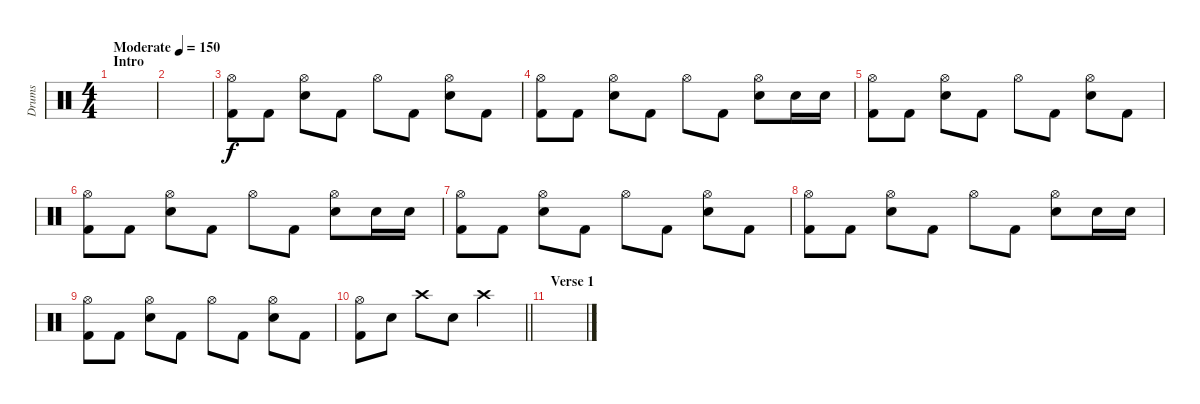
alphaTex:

\track ("Drums" "Drums") {instrument percussion}
\staff {score}
\articulation defaults
\ts (4 4)
\section ("" "Intro")
\tempo (150 "Moderate")
\clef neutral
\ks c
|
|
("Hi-Hat (open)" "Kick (hit) 2").8 "Kick (hit) 2".8 ("Hi-Hat (open)" "Snare (hit) 2").8 "Kick (hit) 2".8 "Hi-Hat (open)".8 "Kick (hit) 2".8 ("Hi-Hat (open)" "Snare (hit) 2").8 "Kick (hit) 2".8 |
("Hi-Hat (open)" "Kick (hit) 2").8 "Kick (hit) 2".8 ("Hi-Hat (open)" "Snare (hit) 2").8 "Kick (hit) 2".8 "Hi-Hat (open)".8 "Kick (hit) 2".8 ("Hi-Hat (open)" "Snare (hit) 2").8 "Snare (hit) 2".16 "Snare (hit) 2".16 |
("Hi-Hat (open)" "Kick (hit) 2").8 "Kick (hit) 2".8 ("Hi-Hat (open)" "Snare (hit) 2").8 "Kick (hit) 2".8 "Hi-Hat (open)".8 "Kick (hit) 2".8 ("Hi-Hat (open)" "Snare (hit) 2").8 "Kick (hit) 2".8 |
("Hi-Hat (open)" "Kick (hit) 2").8 "Kick (hit) 2".8 ("Hi-Hat (open)" "Snare (hit) 2").8 "Kick (hit) 2".8 "Hi-Hat (open)".8 "Kick (hit) 2".8 ("Hi-Hat (open)" "Snare (hit) 2").8 "Snare (hit) 2".16 "Snare (hit) 2".16 |
("Hi-Hat (open)" "Kick (hit) 2").8 "Kick (hit) 2".8 ("Hi-Hat (open)" "Snare (hit) 2").8 "Kick (hit) 2".8 "Hi-Hat (open)".8 "Kick (hit) 2".8 ("Hi-Hat (open)" "Snare (hit) 2").8 "Kick (hit) 2".8 |
("Hi-Hat (open)" "Kick (hit) 2").8 "Kick (hit) 2".8 ("Hi-Hat (open)" "Snare (hit) 2").8 "Kick (hit) 2".8 "Hi-Hat (open)".8 "Kick (hit) 2".8 ("Hi-Hat (open)" "Snare (hit) 2").8 "Snare (hit) 2".16 "Snare (hit) 2".16 |
("Hi-Hat (open)" "Kick (hit) 2").8 "Kick (hit) 2".8 ("Hi-Hat (open)" "Snare (hit) 2").8 "Kick (hit) 2".8 "Hi-Hat (open)".8 "Kick (hit) 2".8 ("Hi-Hat (open)" "Snare (hit) 2").8 "Kick (hit) 2".8 |
\barLineRight lightlight
("Hi-Hat (open)" "Kick (hit) 2").8 "Snare (hit) 2".8 "Crash high (hit)".8 "Snare (hit) 2".8 "Crash high (hit)".2 |
\section ("" "Verse 1")
